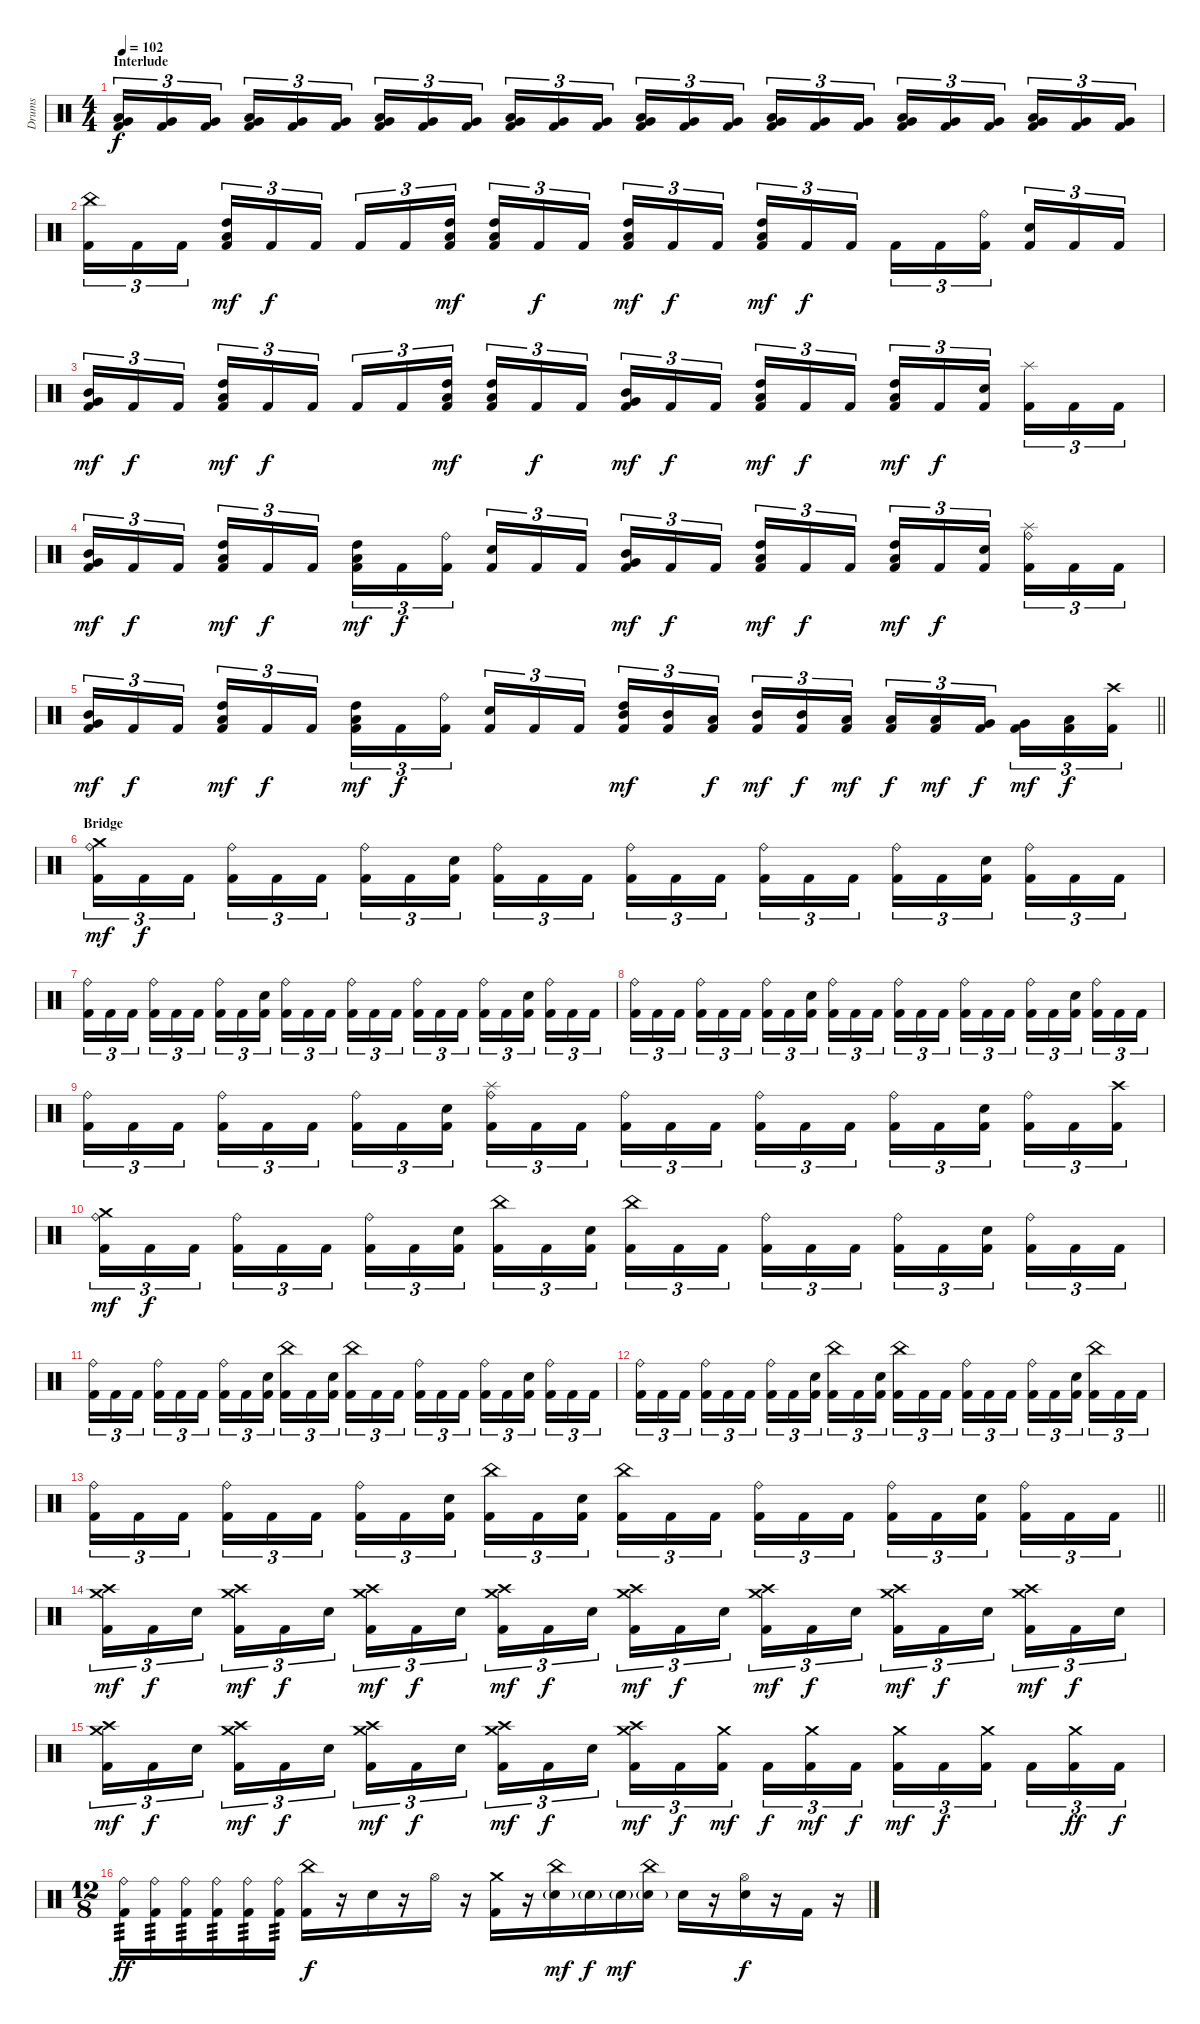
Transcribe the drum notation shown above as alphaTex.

\track ("Drums" "Drums") {instrument percussion}
\staff {score}
\articulation defaults
\ts (4 4)
\section ("" "Interlude")
\tempo 102
\clef neutral
\ks c
("Low Tom (hit)" "Very Low Tom (hit)" "Kick (hit) 2").16{tu (3 2) dy f} ("Very Low Tom (hit)" "Kick (hit) 2").16{tu (3 2)} ("Very Low Tom (hit)" "Kick (hit) 2").16{tu (3 2) beam splitsecondary} ("Low Tom (hit)" "Very Low Tom (hit)" "Kick (hit) 2").16{tu (3 2)} ("Very Low Tom (hit)" "Kick (hit) 2").16{tu (3 2)} ("Very Low Tom (hit)" "Kick (hit) 2").16{tu (3 2)} ("Low Tom (hit)" "Very Low Tom (hit)" "Kick (hit) 2").16{tu (3 2)} ("Very Low Tom (hit)" "Kick (hit) 2").16{tu (3 2)} ("Very Low Tom (hit)" "Kick (hit) 2").16{tu (3 2) beam splitsecondary} ("Low Tom (hit)" "Very Low Tom (hit)" "Kick (hit) 2").16{tu (3 2)} ("Very Low Tom (hit)" "Kick (hit) 2").16{tu (3 2)} ("Very Low Tom (hit)" "Kick (hit) 2").16{tu (3 2)} ("Low Tom (hit)" "Very Low Tom (hit)" "Kick (hit) 2").16{tu (3 2)} ("Very Low Tom (hit)" "Kick (hit) 2").16{tu (3 2)} ("Very Low Tom (hit)" "Kick (hit) 2").16{tu (3 2) beam splitsecondary} ("Low Tom (hit)" "Very Low Tom (hit)" "Kick (hit) 2").16{tu (3 2)} ("Very Low Tom (hit)" "Kick (hit) 2").16{tu (3 2)} ("Very Low Tom (hit)" "Kick (hit) 2").16{tu (3 2)} ("Low Tom (hit)" "Very Low Tom (hit)" "Kick (hit) 2").16{tu (3 2)} ("Very Low Tom (hit)" "Kick (hit) 2").16{tu (3 2)} ("Very Low Tom (hit)" "Kick (hit) 2").16{tu (3 2) beam splitsecondary} ("Low Tom (hit)" "Very Low Tom (hit)" "Kick (hit) 2").16{tu (3 2)} ("Very Low Tom (hit)" "Kick (hit) 2").16{tu (3 2)} ("Very Low Tom (hit)" "Kick (hit) 2").16{tu (3 2)} |
("China (hit)" "Kick (hit) 2").16{tu (3 2)} "Kick (hit) 2".16{tu (3 2)} "Kick (hit) 2".16{tu (3 2) beam splitsecondary} ("High Tom (hit)" "Low Tom (hit)" "Kick (hit) 2").16{tu (3 2) dy mf} "Kick (hit) 2".16{tu (3 2) dy f} "Kick (hit) 2".16{tu (3 2)} "Kick (hit) 2".16{tu (3 2)} "Kick (hit) 2".16{tu (3 2)} ("High Tom (hit)" "Low Tom (hit)" "Kick (hit) 2").16{tu (3 2) dy mf beam splitsecondary} ("High Tom (hit)" "Low Tom (hit)" "Kick (hit) 2").16{tu (3 2)} "Kick (hit) 2".16{tu (3 2) dy f} "Kick (hit) 2".16{tu (3 2)} ("High Tom (hit)" "Low Tom (hit)" "Kick (hit) 2").16{tu (3 2) dy mf} "Kick (hit) 2".16{tu (3 2) dy f} "Kick (hit) 2".16{tu (3 2) beam splitsecondary} ("High Tom (hit)" "Low Tom (hit)" "Kick (hit) 2").16{tu (3 2) dy mf} "Kick (hit) 2".16{tu (3 2) dy f} "Kick (hit) 2".16{tu (3 2)} "Kick (hit) 2".16{tu (3 2)} "Kick (hit) 2".16{tu (3 2)} ("Ride (bell)" "Kick (hit) 2").16{tu (3 2) beam splitsecondary} ("Snare (hit) 2" "Kick (hit) 2").16{tu (3 2)} "Kick (hit) 2".16{tu (3 2)} "Kick (hit) 2".16{tu (3 2)} |
("Mid Tom (hit)" "Very Low Tom (hit)" "Kick (hit) 2").16{tu (3 2) dy mf} "Kick (hit) 2".16{tu (3 2) dy f} "Kick (hit) 2".16{tu (3 2) beam splitsecondary} ("High Tom (hit)" "Low Tom (hit)" "Kick (hit) 2").16{tu (3 2) dy mf} "Kick (hit) 2".16{tu (3 2) dy f} "Kick (hit) 2".16{tu (3 2)} "Kick (hit) 2".16{tu (3 2)} "Kick (hit) 2".16{tu (3 2)} ("High Tom (hit)" "Low Tom (hit)" "Kick (hit) 2").16{tu (3 2) dy mf beam splitsecondary} ("High Tom (hit)" "Low Tom (hit)" "Kick (hit) 2").16{tu (3 2)} "Kick (hit) 2".16{tu (3 2) dy f} "Kick (hit) 2".16{tu (3 2)} ("Mid Tom (hit)" "Very Low Tom (hit)" "Kick (hit) 2").16{tu (3 2) dy mf} "Kick (hit) 2".16{tu (3 2) dy f} "Kick (hit) 2".16{tu (3 2) beam splitsecondary} ("High Tom (hit)" "Low Tom (hit)" "Kick (hit) 2").16{tu (3 2) dy mf} "Kick (hit) 2".16{tu (3 2) dy f} "Kick (hit) 2".16{tu (3 2)} ("High Tom (hit)" "Low Tom (hit)" "Kick (hit) 2").16{tu (3 2) dy mf} "Kick (hit) 2".16{tu (3 2) dy f} ("Snare (hit) 2" "Kick (hit) 2").16{tu (3 2) beam splitsecondary} ("Splash (hit)" "Kick (hit) 2").16{tu (3 2)} "Kick (hit) 2".16{tu (3 2)} "Kick (hit) 2".16{tu (3 2)} |
("Mid Tom (hit)" "Very Low Tom (hit)" "Kick (hit) 2").16{tu (3 2) dy mf} "Kick (hit) 2".16{tu (3 2) dy f} "Kick (hit) 2".16{tu (3 2) beam splitsecondary} ("High Tom (hit)" "Low Tom (hit)" "Kick (hit) 2").16{tu (3 2) dy mf} "Kick (hit) 2".16{tu (3 2) dy f} "Kick (hit) 2".16{tu (3 2)} ("High Tom (hit)" "Low Tom (hit)" "Kick (hit) 2").16{tu (3 2) dy mf} "Kick (hit) 2".16{tu (3 2) dy f} ("Ride (bell)" "Kick (hit) 2").16{tu (3 2) beam splitsecondary} ("Snare (hit) 2" "Kick (hit) 2").16{tu (3 2)} "Kick (hit) 2".16{tu (3 2)} "Kick (hit) 2".16{tu (3 2)} ("Mid Tom (hit)" "Very Low Tom (hit)" "Kick (hit) 2").16{tu (3 2) dy mf} "Kick (hit) 2".16{tu (3 2) dy f} "Kick (hit) 2".16{tu (3 2) beam splitsecondary} ("High Tom (hit)" "Low Tom (hit)" "Kick (hit) 2").16{tu (3 2) dy mf} "Kick (hit) 2".16{tu (3 2) dy f} "Kick (hit) 2".16{tu (3 2)} ("High Tom (hit)" "Low Tom (hit)" "Kick (hit) 2").16{tu (3 2) dy mf} "Kick (hit) 2".16{tu (3 2) dy f} ("Snare (hit) 2" "Kick (hit) 2").16{tu (3 2) beam splitsecondary} ("Splash (hit)" "Ride (bell)" "Kick (hit) 2").16{tu (3 2)} "Kick (hit) 2".16{tu (3 2)} "Kick (hit) 2".16{tu (3 2)} |
\barLineRight lightlight
("Mid Tom (hit)" "Very Low Tom (hit)" "Kick (hit) 2").16{tu (3 2) dy mf} "Kick (hit) 2".16{tu (3 2) dy f} "Kick (hit) 2".16{tu (3 2) beam splitsecondary} ("High Tom (hit)" "Low Tom (hit)" "Kick (hit) 2").16{tu (3 2) dy mf} "Kick (hit) 2".16{tu (3 2) dy f} "Kick (hit) 2".16{tu (3 2)} ("High Tom (hit)" "Low Tom (hit)" "Kick (hit) 2").16{tu (3 2) dy mf} "Kick (hit) 2".16{tu (3 2) dy f} ("Ride (bell)" "Kick (hit) 2").16{tu (3 2) beam splitsecondary} ("Snare (hit) 2" "Kick (hit) 2").16{tu (3 2)} "Kick (hit) 2".16{tu (3 2)} "Kick (hit) 2".16{tu (3 2)} ("High Tom (hit)" "Mid Tom (hit)" "Kick (hit) 2").16{tu (3 2) dy mf} ("Mid Tom (hit)" "Kick (hit) 2").16{tu (3 2)} ("Low Tom (hit)" "Kick (hit) 2").16{tu (3 2) dy f beam splitsecondary} ("Mid Tom (hit)" "Kick (hit) 2").16{tu (3 2) dy mf} ("Mid Tom (hit)" "Kick (hit) 2").16{tu (3 2) dy f} ("Low Tom (hit)" "Kick (hit) 2").16{tu (3 2) dy mf} ("Low Tom (hit)" "Kick (hit) 2").16{tu (3 2) dy f} ("Low Tom (hit)" "Kick (hit) 2").16{tu (3 2) dy mf} ("Very Low Tom (hit)" "Kick (hit) 2").16{tu (3 2) dy f beam splitsecondary} ("Very Low Tom (hit)" "Kick (hit) 2").16{tu (3 2) dy mf} ("Low Floor Tom (hit)" "Kick (hit) 2").16{tu (3 2) dy f} ("Crash high (hit)" "Kick (hit) 2").16{tu (3 2)} |
\section ("" "Bridge")
("Ride (bell)" "Crash medium (hit)" "Kick (hit) 2").16{tu (3 2) dy mf} "Kick (hit) 2".16{tu (3 2) dy f} "Kick (hit) 2".16{tu (3 2) beam splitsecondary} ("Ride (bell)" "Kick (hit) 2").16{tu (3 2)} "Kick (hit) 2".16{tu (3 2)} "Kick (hit) 2".16{tu (3 2)} ("Ride (bell)" "Kick (hit) 2").16{tu (3 2)} "Kick (hit) 2".16{tu (3 2)} ("Snare (hit) 2" "Kick (hit) 2").16{tu (3 2) beam splitsecondary} ("Ride (bell)" "Kick (hit) 2").16{tu (3 2)} "Kick (hit) 2".16{tu (3 2)} "Kick (hit) 2".16{tu (3 2)} ("Ride (bell)" "Kick (hit) 2").16{tu (3 2)} "Kick (hit) 2".16{tu (3 2)} "Kick (hit) 2".16{tu (3 2) beam splitsecondary} ("Ride (bell)" "Kick (hit) 2").16{tu (3 2)} "Kick (hit) 2".16{tu (3 2)} "Kick (hit) 2".16{tu (3 2)} ("Ride (bell)" "Kick (hit) 2").16{tu (3 2)} "Kick (hit) 2".16{tu (3 2)} ("Snare (hit) 2" "Kick (hit) 2").16{tu (3 2) beam splitsecondary} ("Ride (bell)" "Kick (hit) 2").16{tu (3 2)} "Kick (hit) 2".16{tu (3 2)} "Kick (hit) 2".16{tu (3 2)} |
("Ride (bell)" "Kick (hit) 2").16{tu (3 2)} "Kick (hit) 2".16{tu (3 2)} "Kick (hit) 2".16{tu (3 2) beam splitsecondary} ("Ride (bell)" "Kick (hit) 2").16{tu (3 2)} "Kick (hit) 2".16{tu (3 2)} "Kick (hit) 2".16{tu (3 2)} ("Ride (bell)" "Kick (hit) 2").16{tu (3 2)} "Kick (hit) 2".16{tu (3 2)} ("Snare (hit) 2" "Kick (hit) 2").16{tu (3 2) beam splitsecondary} ("Ride (bell)" "Kick (hit) 2").16{tu (3 2)} "Kick (hit) 2".16{tu (3 2)} "Kick (hit) 2".16{tu (3 2)} ("Ride (bell)" "Kick (hit) 2").16{tu (3 2)} "Kick (hit) 2".16{tu (3 2)} "Kick (hit) 2".16{tu (3 2) beam splitsecondary} ("Ride (bell)" "Kick (hit) 2").16{tu (3 2)} "Kick (hit) 2".16{tu (3 2)} "Kick (hit) 2".16{tu (3 2)} ("Ride (bell)" "Kick (hit) 2").16{tu (3 2)} "Kick (hit) 2".16{tu (3 2)} ("Snare (hit) 2" "Kick (hit) 2").16{tu (3 2) beam splitsecondary} ("Ride (bell)" "Kick (hit) 2").16{tu (3 2)} "Kick (hit) 2".16{tu (3 2)} "Kick (hit) 2".16{tu (3 2)} |
("Ride (bell)" "Kick (hit) 2").16{tu (3 2)} "Kick (hit) 2".16{tu (3 2)} "Kick (hit) 2".16{tu (3 2) beam splitsecondary} ("Ride (bell)" "Kick (hit) 2").16{tu (3 2)} "Kick (hit) 2".16{tu (3 2)} "Kick (hit) 2".16{tu (3 2)} ("Ride (bell)" "Kick (hit) 2").16{tu (3 2)} "Kick (hit) 2".16{tu (3 2)} ("Snare (hit) 2" "Kick (hit) 2").16{tu (3 2) beam splitsecondary} ("Ride (bell)" "Kick (hit) 2").16{tu (3 2)} "Kick (hit) 2".16{tu (3 2)} "Kick (hit) 2".16{tu (3 2)} ("Ride (bell)" "Kick (hit) 2").16{tu (3 2)} "Kick (hit) 2".16{tu (3 2)} "Kick (hit) 2".16{tu (3 2) beam splitsecondary} ("Ride (bell)" "Kick (hit) 2").16{tu (3 2)} "Kick (hit) 2".16{tu (3 2)} "Kick (hit) 2".16{tu (3 2)} ("Ride (bell)" "Kick (hit) 2").16{tu (3 2)} "Kick (hit) 2".16{tu (3 2)} ("Snare (hit) 2" "Kick (hit) 2").16{tu (3 2) beam splitsecondary} ("Ride (bell)" "Kick (hit) 2").16{tu (3 2)} "Kick (hit) 2".16{tu (3 2)} "Kick (hit) 2".16{tu (3 2)} |
("Ride (bell)" "Kick (hit) 2").16{tu (3 2)} "Kick (hit) 2".16{tu (3 2)} "Kick (hit) 2".16{tu (3 2) beam splitsecondary} ("Ride (bell)" "Kick (hit) 2").16{tu (3 2)} "Kick (hit) 2".16{tu (3 2)} "Kick (hit) 2".16{tu (3 2)} ("Ride (bell)" "Kick (hit) 2").16{tu (3 2)} "Kick (hit) 2".16{tu (3 2)} ("Snare (hit) 2" "Kick (hit) 2").16{tu (3 2) beam splitsecondary} ("Ride (bell)" "Splash (hit)" "Kick (hit) 2").16{tu (3 2)} "Kick (hit) 2".16{tu (3 2)} "Kick (hit) 2".16{tu (3 2)} ("Ride (bell)" "Kick (hit) 2").16{tu (3 2)} "Kick (hit) 2".16{tu (3 2)} "Kick (hit) 2".16{tu (3 2) beam splitsecondary} ("Ride (bell)" "Kick (hit) 2").16{tu (3 2)} "Kick (hit) 2".16{tu (3 2)} "Kick (hit) 2".16{tu (3 2)} ("Ride (bell)" "Kick (hit) 2").16{tu (3 2)} "Kick (hit) 2".16{tu (3 2)} ("Snare (hit) 2" "Kick (hit) 2").16{tu (3 2) beam splitsecondary} ("Ride (bell)" "Kick (hit) 2").16{tu (3 2)} "Kick (hit) 2".16{tu (3 2)} ("Crash high (hit)" "Kick (hit) 2").16{tu (3 2)} |
("Ride (bell)" "Crash medium (hit)" "Kick (hit) 2").16{tu (3 2) dy mf} "Kick (hit) 2".16{tu (3 2) dy f} "Kick (hit) 2".16{tu (3 2) beam splitsecondary} ("Ride (bell)" "Kick (hit) 2").16{tu (3 2)} "Kick (hit) 2".16{tu (3 2)} "Kick (hit) 2".16{tu (3 2)} ("Ride (bell)" "Kick (hit) 2").16{tu (3 2)} "Kick (hit) 2".16{tu (3 2)} ("Snare (hit) 2" "Kick (hit) 2").16{tu (3 2) beam splitsecondary} ("China (hit)" "Kick (hit) 2").16{tu (3 2)} "Kick (hit) 2".16{tu (3 2)} ("Snare (hit) 2" "Kick (hit) 2").16{tu (3 2)} ("China (hit)" "Kick (hit) 2").16{tu (3 2)} "Kick (hit) 2".16{tu (3 2)} "Kick (hit) 2".16{tu (3 2) beam splitsecondary} ("Ride (bell)" "Kick (hit) 2").16{tu (3 2)} "Kick (hit) 2".16{tu (3 2)} "Kick (hit) 2".16{tu (3 2)} ("Ride (bell)" "Kick (hit) 2").16{tu (3 2)} "Kick (hit) 2".16{tu (3 2)} ("Snare (hit) 2" "Kick (hit) 2").16{tu (3 2) beam splitsecondary} ("Ride (bell)" "Kick (hit) 2").16{tu (3 2)} "Kick (hit) 2".16{tu (3 2)} "Kick (hit) 2".16{tu (3 2)} |
("Ride (bell)" "Kick (hit) 2").16{tu (3 2)} "Kick (hit) 2".16{tu (3 2)} "Kick (hit) 2".16{tu (3 2) beam splitsecondary} ("Ride (bell)" "Kick (hit) 2").16{tu (3 2)} "Kick (hit) 2".16{tu (3 2)} "Kick (hit) 2".16{tu (3 2)} ("Ride (bell)" "Kick (hit) 2").16{tu (3 2)} "Kick (hit) 2".16{tu (3 2)} ("Snare (hit) 2" "Kick (hit) 2").16{tu (3 2) beam splitsecondary} ("China (hit)" "Kick (hit) 2").16{tu (3 2)} "Kick (hit) 2".16{tu (3 2)} ("Snare (hit) 2" "Kick (hit) 2").16{tu (3 2)} ("China (hit)" "Kick (hit) 2").16{tu (3 2)} "Kick (hit) 2".16{tu (3 2)} "Kick (hit) 2".16{tu (3 2) beam splitsecondary} ("Ride (bell)" "Kick (hit) 2").16{tu (3 2)} "Kick (hit) 2".16{tu (3 2)} "Kick (hit) 2".16{tu (3 2)} ("Ride (bell)" "Kick (hit) 2").16{tu (3 2)} "Kick (hit) 2".16{tu (3 2)} ("Snare (hit) 2" "Kick (hit) 2").16{tu (3 2) beam splitsecondary} ("Ride (bell)" "Kick (hit) 2").16{tu (3 2)} "Kick (hit) 2".16{tu (3 2)} "Kick (hit) 2".16{tu (3 2)} |
("Ride (bell)" "Kick (hit) 2").16{tu (3 2)} "Kick (hit) 2".16{tu (3 2)} "Kick (hit) 2".16{tu (3 2) beam splitsecondary} ("Ride (bell)" "Kick (hit) 2").16{tu (3 2)} "Kick (hit) 2".16{tu (3 2)} "Kick (hit) 2".16{tu (3 2)} ("Ride (bell)" "Kick (hit) 2").16{tu (3 2)} "Kick (hit) 2".16{tu (3 2)} ("Snare (hit) 2" "Kick (hit) 2").16{tu (3 2) beam splitsecondary} ("China (hit)" "Kick (hit) 2").16{tu (3 2)} "Kick (hit) 2".16{tu (3 2)} ("Snare (hit) 2" "Kick (hit) 2").16{tu (3 2)} ("China (hit)" "Kick (hit) 2").16{tu (3 2)} "Kick (hit) 2".16{tu (3 2)} "Kick (hit) 2".16{tu (3 2) beam splitsecondary} ("Ride (bell)" "Kick (hit) 2").16{tu (3 2)} "Kick (hit) 2".16{tu (3 2)} "Kick (hit) 2".16{tu (3 2)} ("Ride (bell)" "Kick (hit) 2").16{tu (3 2)} "Kick (hit) 2".16{tu (3 2)} ("Snare (hit) 2" "Kick (hit) 2").16{tu (3 2) beam splitsecondary} ("China (hit)" "Kick (hit) 2").16{tu (3 2)} "Kick (hit) 2".16{tu (3 2)} "Kick (hit) 2".16{tu (3 2)} |
\barLineRight lightlight
("Ride (bell)" "Kick (hit) 2").16{tu (3 2)} "Kick (hit) 2".16{tu (3 2)} "Kick (hit) 2".16{tu (3 2) beam splitsecondary} ("Ride (bell)" "Kick (hit) 2").16{tu (3 2)} "Kick (hit) 2".16{tu (3 2)} "Kick (hit) 2".16{tu (3 2)} ("Ride (bell)" "Kick (hit) 2").16{tu (3 2)} "Kick (hit) 2".16{tu (3 2)} ("Snare (hit) 2" "Kick (hit) 2").16{tu (3 2) beam splitsecondary} ("China (hit)" "Kick (hit) 2").16{tu (3 2)} "Kick (hit) 2".16{tu (3 2)} ("Snare (hit) 2" "Kick (hit) 2").16{tu (3 2)} ("China (hit)" "Kick (hit) 2").16{tu (3 2)} "Kick (hit) 2".16{tu (3 2)} "Kick (hit) 2".16{tu (3 2) beam splitsecondary} ("Ride (bell)" "Kick (hit) 2").16{tu (3 2)} "Kick (hit) 2".16{tu (3 2)} "Kick (hit) 2".16{tu (3 2)} ("Ride (bell)" "Kick (hit) 2").16{tu (3 2)} "Kick (hit) 2".16{tu (3 2)} ("Snare (hit) 2" "Kick (hit) 2").16{tu (3 2) beam splitsecondary} ("Ride (bell)" "Kick (hit) 2").16{tu (3 2)} "Kick (hit) 2".16{tu (3 2)} "Kick (hit) 2".16{tu (3 2)} |
("Crash medium (hit)" "Crash high (hit)" "Kick (hit) 2").16{tu (3 2) dy mf} "Kick (hit) 2".16{tu (3 2) dy f} "Snare (hit) 2".16{tu (3 2) beam splitsecondary} ("Crash medium (hit)" "Crash high (hit)" "Kick (hit) 2").16{tu (3 2) dy mf} "Kick (hit) 2".16{tu (3 2) dy f} "Snare (hit) 2".16{tu (3 2)} ("Crash medium (hit)" "Crash high (hit)" "Kick (hit) 2").16{tu (3 2) dy mf} "Kick (hit) 2".16{tu (3 2) dy f} "Snare (hit) 2".16{tu (3 2) beam splitsecondary} ("Crash medium (hit)" "Crash high (hit)" "Kick (hit) 2").16{tu (3 2) dy mf} "Kick (hit) 2".16{tu (3 2) dy f} "Snare (hit) 2".16{tu (3 2)} ("Crash medium (hit)" "Crash high (hit)" "Kick (hit) 2").16{tu (3 2) dy mf} "Kick (hit) 2".16{tu (3 2) dy f} "Snare (hit) 2".16{tu (3 2) beam splitsecondary} ("Crash medium (hit)" "Crash high (hit)" "Kick (hit) 2").16{tu (3 2) dy mf} "Kick (hit) 2".16{tu (3 2) dy f} "Snare (hit) 2".16{tu (3 2)} ("Crash medium (hit)" "Crash high (hit)" "Kick (hit) 2").16{tu (3 2) dy mf} "Kick (hit) 2".16{tu (3 2) dy f} "Snare (hit) 2".16{tu (3 2) beam splitsecondary} ("Crash medium (hit)" "Crash high (hit)" "Kick (hit) 2").16{tu (3 2) dy mf} "Kick (hit) 2".16{tu (3 2) dy f} "Snare (hit) 2".16{tu (3 2)} |
("Crash medium (hit)" "Crash high (hit)" "Kick (hit) 2").16{tu (3 2) dy mf} "Kick (hit) 2".16{tu (3 2) dy f} "Snare (hit) 2".16{tu (3 2) beam splitsecondary} ("Crash medium (hit)" "Crash high (hit)" "Kick (hit) 2").16{tu (3 2) dy mf} "Kick (hit) 2".16{tu (3 2) dy f} "Snare (hit) 2".16{tu (3 2)} ("Crash medium (hit)" "Crash high (hit)" "Kick (hit) 2").16{tu (3 2) dy mf} "Kick (hit) 2".16{tu (3 2) dy f} "Snare (hit) 2".16{tu (3 2) beam splitsecondary} ("Crash medium (hit)" "Crash high (hit)" "Kick (hit) 2").16{tu (3 2) dy mf} "Kick (hit) 2".16{tu (3 2) dy f} "Snare (hit) 2".16{tu (3 2)} ("Crash medium (hit)" "Crash high (hit)" "Kick (hit) 2").16{tu (3 2) dy mf} "Kick (hit) 2".16{tu (3 2) dy f} ("Crash medium (hit)" "Kick (hit) 2").16{tu (3 2) dy mf beam splitsecondary} "Kick (hit) 2".16{tu (3 2) dy f} ("Crash medium (hit)" "Kick (hit) 2").16{tu (3 2) dy mf} "Kick (hit) 2".16{tu (3 2) dy f} ("Crash medium (hit)" "Kick (hit) 2").16{tu (3 2) dy mf} "Kick (hit) 2".16{tu (3 2) dy f} ("Crash medium (hit)" "Kick (hit) 2").16{tu (3 2) beam splitsecondary} "Kick (hit) 2".16{tu (3 2)} ("Crash medium (hit)" "Kick (hit) 2").16{tu (3 2) dy ff} "Kick (hit) 2".16{tu (3 2) dy f} |
\ts (12 8)
("Ride (bell)" "Kick (hit) 2").16{tp 3 dy ff} ("Ride (bell)" "Kick (hit) 2").16{tp 3} ("Ride (bell)" "Kick (hit) 2").16{tp 3} ("Ride (bell)" "Kick (hit) 2").16{tp 3} ("Ride (bell)" "Kick (hit) 2").16{tp 3} ("Ride (bell)" "Kick (hit) 2").16{tp 3} ("China (hit)" "Kick (hit) 2").16{dy f} r.16 "Snare (hit) 2".16 r.16 "Hi-Hat (open)".16 r.16 ("Crash medium (hit)" "Kick (hit) 2").16 r.16 ("China (hit)" "Snare (hit) 2"{g}).16{dy mf} "Snare (hit) 2"{g}.16{dy f} "Snare (hit) 2"{g}.16{dy mf} ("China (hit)" "Snare (hit) 2"{g}).16 "Snare (hit) 2".16 r.16 ("Hi-Hat (open)" "Snare (hit) 2").16{dy f} r.16 "Kick (hit) 2".16 r.16
